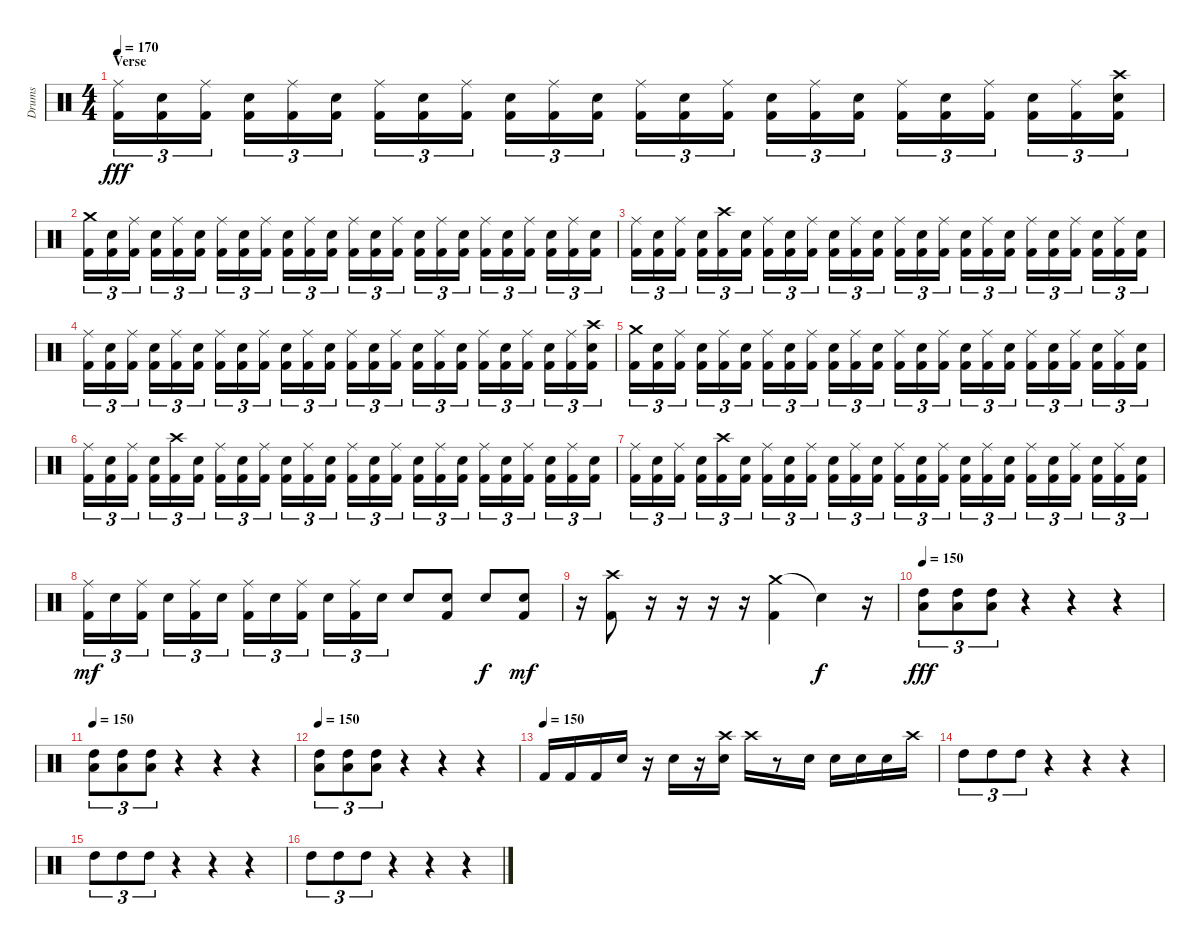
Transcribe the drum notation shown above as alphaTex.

\track ("Drums" "Drums") {instrument percussion}
\staff {score}
\articulation defaults
\ts (4 4)
\section ("" "Verse")
\tempo 170
\clef neutral
\ks c
("Ride (middle)" "Kick (hit) 2").16{tu (3 2) dy fff} ("Snare (hit) 2" "Kick (hit) 2").16{tu (3 2)} ("Ride (middle)" "Kick (hit) 2").16{tu (3 2) beam splitsecondary} ("Snare (hit) 2" "Kick (hit) 2").16{tu (3 2)} ("Ride (middle)" "Kick (hit) 2").16{tu (3 2)} ("Snare (hit) 2" "Kick (hit) 2").16{tu (3 2)} ("Ride (middle)" "Kick (hit) 2").16{tu (3 2)} ("Snare (hit) 2" "Kick (hit) 2").16{tu (3 2)} ("Ride (middle)" "Kick (hit) 2").16{tu (3 2) beam splitsecondary} ("Snare (hit) 2" "Kick (hit) 2").16{tu (3 2)} ("Ride (middle)" "Kick (hit) 2").16{tu (3 2)} ("Snare (hit) 2" "Kick (hit) 2").16{tu (3 2)} ("Ride (middle)" "Kick (hit) 2").16{tu (3 2)} ("Snare (hit) 2" "Kick (hit) 2").16{tu (3 2)} ("Ride (middle)" "Kick (hit) 2").16{tu (3 2) beam splitsecondary} ("Snare (hit) 2" "Kick (hit) 2").16{tu (3 2)} ("Ride (middle)" "Kick (hit) 2").16{tu (3 2)} ("Snare (hit) 2" "Kick (hit) 2").16{tu (3 2)} ("Ride (middle)" "Kick (hit) 2").16{tu (3 2)} ("Snare (hit) 2" "Kick (hit) 2").16{tu (3 2)} ("Ride (middle)" "Kick (hit) 2").16{tu (3 2) beam splitsecondary} ("Snare (hit) 2" "Kick (hit) 2").16{tu (3 2)} ("Ride (middle)" "Kick (hit) 2").16{tu (3 2)} ("Crash high (hit)" "Snare (hit) 2" "Kick (hit) 2").16{tu (3 2)} |
("Crash medium (hit)" "Kick (hit) 2").16{tu (3 2)} ("Snare (hit) 2" "Kick (hit) 2").16{tu (3 2)} ("Ride (middle)" "Kick (hit) 2").16{tu (3 2) beam splitsecondary} ("Snare (hit) 2" "Kick (hit) 2").16{tu (3 2)} ("Ride (middle)" "Kick (hit) 2").16{tu (3 2)} ("Snare (hit) 2" "Kick (hit) 2").16{tu (3 2)} ("Ride (middle)" "Kick (hit) 2").16{tu (3 2)} ("Snare (hit) 2" "Kick (hit) 2").16{tu (3 2)} ("Ride (middle)" "Kick (hit) 2").16{tu (3 2) beam splitsecondary} ("Snare (hit) 2" "Kick (hit) 2").16{tu (3 2)} ("Ride (middle)" "Kick (hit) 2").16{tu (3 2)} ("Snare (hit) 2" "Kick (hit) 2").16{tu (3 2)} ("Ride (middle)" "Kick (hit) 2").16{tu (3 2)} ("Snare (hit) 2" "Kick (hit) 2").16{tu (3 2)} ("Ride (middle)" "Kick (hit) 2").16{tu (3 2) beam splitsecondary} ("Snare (hit) 2" "Kick (hit) 2").16{tu (3 2)} ("Ride (middle)" "Kick (hit) 2").16{tu (3 2)} ("Snare (hit) 2" "Kick (hit) 2").16{tu (3 2)} ("Ride (middle)" "Kick (hit) 2").16{tu (3 2)} ("Snare (hit) 2" "Kick (hit) 2").16{tu (3 2)} ("Ride (middle)" "Kick (hit) 2").16{tu (3 2) beam splitsecondary} ("Snare (hit) 2" "Kick (hit) 2").16{tu (3 2)} ("Ride (middle)" "Kick (hit) 2").16{tu (3 2)} ("Snare (hit) 2" "Kick (hit) 2").16{tu (3 2)} |
("Ride (middle)" "Kick (hit) 2").16{tu (3 2)} ("Snare (hit) 2" "Kick (hit) 2").16{tu (3 2)} ("Ride (middle)" "Kick (hit) 2").16{tu (3 2) beam splitsecondary} ("Snare (hit) 2" "Kick (hit) 2").16{tu (3 2)} ("Crash high (hit)" "Kick (hit) 2").16{tu (3 2)} ("Snare (hit) 2" "Kick (hit) 2").16{tu (3 2)} ("Ride (middle)" "Kick (hit) 2").16{tu (3 2)} ("Snare (hit) 2" "Kick (hit) 2").16{tu (3 2)} ("Ride (middle)" "Kick (hit) 2").16{tu (3 2) beam splitsecondary} ("Snare (hit) 2" "Kick (hit) 2").16{tu (3 2)} ("Ride (middle)" "Kick (hit) 2").16{tu (3 2)} ("Snare (hit) 2" "Kick (hit) 2").16{tu (3 2)} ("Ride (middle)" "Kick (hit) 2").16{tu (3 2)} ("Snare (hit) 2" "Kick (hit) 2").16{tu (3 2)} ("Ride (middle)" "Kick (hit) 2").16{tu (3 2) beam splitsecondary} ("Snare (hit) 2" "Kick (hit) 2").16{tu (3 2)} ("Ride (middle)" "Kick (hit) 2").16{tu (3 2)} ("Snare (hit) 2" "Kick (hit) 2").16{tu (3 2)} ("Ride (middle)" "Kick (hit) 2").16{tu (3 2)} ("Snare (hit) 2" "Kick (hit) 2").16{tu (3 2)} ("Ride (middle)" "Kick (hit) 2").16{tu (3 2) beam splitsecondary} ("Snare (hit) 2" "Kick (hit) 2").16{tu (3 2)} ("Ride (middle)" "Kick (hit) 2").16{tu (3 2)} ("Snare (hit) 2" "Kick (hit) 2").16{tu (3 2)} |
("Ride (middle)" "Kick (hit) 2").16{tu (3 2)} ("Snare (hit) 2" "Kick (hit) 2").16{tu (3 2)} ("Ride (middle)" "Kick (hit) 2").16{tu (3 2) beam splitsecondary} ("Snare (hit) 2" "Kick (hit) 2").16{tu (3 2)} ("Ride (middle)" "Kick (hit) 2").16{tu (3 2)} ("Snare (hit) 2" "Kick (hit) 2").16{tu (3 2)} ("Ride (middle)" "Kick (hit) 2").16{tu (3 2)} ("Snare (hit) 2" "Kick (hit) 2").16{tu (3 2)} ("Ride (middle)" "Kick (hit) 2").16{tu (3 2) beam splitsecondary} ("Snare (hit) 2" "Kick (hit) 2").16{tu (3 2)} ("Ride (middle)" "Kick (hit) 2").16{tu (3 2)} ("Snare (hit) 2" "Kick (hit) 2").16{tu (3 2)} ("Ride (middle)" "Kick (hit) 2").16{tu (3 2)} ("Snare (hit) 2" "Kick (hit) 2").16{tu (3 2)} ("Ride (middle)" "Kick (hit) 2").16{tu (3 2) beam splitsecondary} ("Snare (hit) 2" "Kick (hit) 2").16{tu (3 2)} ("Ride (middle)" "Kick (hit) 2").16{tu (3 2)} ("Snare (hit) 2" "Kick (hit) 2").16{tu (3 2)} ("Ride (middle)" "Kick (hit) 2").16{tu (3 2)} ("Snare (hit) 2" "Kick (hit) 2").16{tu (3 2)} ("Ride (middle)" "Kick (hit) 2").16{tu (3 2) beam splitsecondary} ("Snare (hit) 2" "Kick (hit) 2").16{tu (3 2)} ("Ride (middle)" "Kick (hit) 2").16{tu (3 2)} ("Crash high (hit)" "Snare (hit) 2" "Kick (hit) 2").16{tu (3 2)} |
("Crash medium (hit)" "Kick (hit) 2").16{tu (3 2)} ("Snare (hit) 2" "Kick (hit) 2").16{tu (3 2)} ("Ride (middle)" "Kick (hit) 2").16{tu (3 2) beam splitsecondary} ("Snare (hit) 2" "Kick (hit) 2").16{tu (3 2)} ("Ride (middle)" "Kick (hit) 2").16{tu (3 2)} ("Snare (hit) 2" "Kick (hit) 2").16{tu (3 2)} ("Ride (middle)" "Kick (hit) 2").16{tu (3 2)} ("Snare (hit) 2" "Kick (hit) 2").16{tu (3 2)} ("Ride (middle)" "Kick (hit) 2").16{tu (3 2) beam splitsecondary} ("Snare (hit) 2" "Kick (hit) 2").16{tu (3 2)} ("Ride (middle)" "Kick (hit) 2").16{tu (3 2)} ("Snare (hit) 2" "Kick (hit) 2").16{tu (3 2)} ("Ride (middle)" "Kick (hit) 2").16{tu (3 2)} ("Snare (hit) 2" "Kick (hit) 2").16{tu (3 2)} ("Ride (middle)" "Kick (hit) 2").16{tu (3 2) beam splitsecondary} ("Snare (hit) 2" "Kick (hit) 2").16{tu (3 2)} ("Ride (middle)" "Kick (hit) 2").16{tu (3 2)} ("Snare (hit) 2" "Kick (hit) 2").16{tu (3 2)} ("Ride (middle)" "Kick (hit) 2").16{tu (3 2)} ("Snare (hit) 2" "Kick (hit) 2").16{tu (3 2)} ("Ride (middle)" "Kick (hit) 2").16{tu (3 2) beam splitsecondary} ("Snare (hit) 2" "Kick (hit) 2").16{tu (3 2)} ("Ride (middle)" "Kick (hit) 2").16{tu (3 2)} ("Snare (hit) 2" "Kick (hit) 2").16{tu (3 2)} |
("Ride (middle)" "Kick (hit) 2").16{tu (3 2)} ("Snare (hit) 2" "Kick (hit) 2").16{tu (3 2)} ("Ride (middle)" "Kick (hit) 2").16{tu (3 2) beam splitsecondary} ("Snare (hit) 2" "Kick (hit) 2").16{tu (3 2)} ("Crash high (hit)" "Kick (hit) 2").16{tu (3 2)} ("Snare (hit) 2" "Kick (hit) 2").16{tu (3 2)} ("Ride (middle)" "Kick (hit) 2").16{tu (3 2)} ("Snare (hit) 2" "Kick (hit) 2").16{tu (3 2)} ("Ride (middle)" "Kick (hit) 2").16{tu (3 2) beam splitsecondary} ("Snare (hit) 2" "Kick (hit) 2").16{tu (3 2)} ("Ride (middle)" "Kick (hit) 2").16{tu (3 2)} ("Snare (hit) 2" "Kick (hit) 2").16{tu (3 2)} ("Ride (middle)" "Kick (hit) 2").16{tu (3 2)} ("Snare (hit) 2" "Kick (hit) 2").16{tu (3 2)} ("Ride (middle)" "Kick (hit) 2").16{tu (3 2) beam splitsecondary} ("Snare (hit) 2" "Kick (hit) 2").16{tu (3 2)} ("Ride (middle)" "Kick (hit) 2").16{tu (3 2)} ("Snare (hit) 2" "Kick (hit) 2").16{tu (3 2)} ("Ride (middle)" "Kick (hit) 2").16{tu (3 2)} ("Snare (hit) 2" "Kick (hit) 2").16{tu (3 2)} ("Ride (middle)" "Kick (hit) 2").16{tu (3 2) beam splitsecondary} ("Snare (hit) 2" "Kick (hit) 2").16{tu (3 2)} ("Ride (middle)" "Kick (hit) 2").16{tu (3 2)} ("Snare (hit) 2" "Kick (hit) 2").16{tu (3 2)} |
("Ride (middle)" "Kick (hit) 2").16{tu (3 2)} ("Snare (hit) 2" "Kick (hit) 2").16{tu (3 2)} ("Ride (middle)" "Kick (hit) 2").16{tu (3 2) beam splitsecondary} ("Snare (hit) 2" "Kick (hit) 2").16{tu (3 2)} ("Crash high (hit)" "Kick (hit) 2").16{tu (3 2)} ("Snare (hit) 2" "Kick (hit) 2").16{tu (3 2)} ("Ride (middle)" "Kick (hit) 2").16{tu (3 2)} ("Snare (hit) 2" "Kick (hit) 2").16{tu (3 2)} ("Ride (middle)" "Kick (hit) 2").16{tu (3 2) beam splitsecondary} ("Snare (hit) 2" "Kick (hit) 2").16{tu (3 2)} ("Ride (middle)" "Kick (hit) 2").16{tu (3 2)} ("Snare (hit) 2" "Kick (hit) 2").16{tu (3 2)} ("Ride (middle)" "Kick (hit) 2").16{tu (3 2)} ("Snare (hit) 2" "Kick (hit) 2").16{tu (3 2)} ("Ride (middle)" "Kick (hit) 2").16{tu (3 2) beam splitsecondary} ("Snare (hit) 2" "Kick (hit) 2").16{tu (3 2)} ("Ride (middle)" "Kick (hit) 2").16{tu (3 2)} ("Snare (hit) 2" "Kick (hit) 2").16{tu (3 2)} ("Ride (middle)" "Kick (hit) 2").16{tu (3 2)} ("Snare (hit) 2" "Kick (hit) 2").16{tu (3 2)} ("Ride (middle)" "Kick (hit) 2").16{tu (3 2) beam splitsecondary} ("Snare (hit) 2" "Kick (hit) 2").16{tu (3 2)} ("Ride (middle)" "Kick (hit) 2").16{tu (3 2)} ("Snare (hit) 2" "Kick (hit) 2").16{tu (3 2)} |
("Ride (middle)" "Kick (hit) 2").16{tu (3 2) dy mf} "Snare (hit) 2".16{tu (3 2)} ("Ride (middle)" "Kick (hit) 2").16{tu (3 2) beam splitsecondary} "Snare (hit) 2".16{tu (3 2)} ("Ride (middle)" "Kick (hit) 2").16{tu (3 2)} "Snare (hit) 2".16{tu (3 2)} ("Ride (middle)" "Kick (hit) 2").16{tu (3 2)} "Snare (hit) 2".16{tu (3 2)} ("Ride (middle)" "Kick (hit) 2").16{tu (3 2) beam splitsecondary} "Snare (hit) 2".16{tu (3 2)} ("Ride (middle)" "Kick (hit) 2").16{tu (3 2)} "Snare (hit) 2".16{tu (3 2)} "Electric Snare (hit)".8 ("Snare (hit) 2" "Kick (hit) 2").8 "Snare (hit) 2".8{dy f} ("Snare (hit) 2" "Kick (hit) 2").8{dy mf} |
r.16 ("Crash high (hit)" "Kick (hit) 2").8 r.16 r.16 r.16 r.16 ("Crash medium (hit)" "Kick (hit) 2").4 "Snare (hit)"{t}.4{dy f} r.16 |
\tempo 150
("High Tom (hit)" "Low Tom (hit)").8{tu (3 2) dy fff} ("High Tom (hit)" "Low Tom (hit)").8{tu (3 2)} ("High Tom (hit)" "Low Tom (hit)").8{tu (3 2)} r.4 r.4 r.4 |
\tempo 150
("High Tom (hit)" "Low Tom (hit)").8{tu (3 2)} ("High Tom (hit)" "Low Tom (hit)").8{tu (3 2)} ("High Tom (hit)" "Low Tom (hit)").8{tu (3 2)} r.4 r.4 r.4 |
\tempo 150
("High Tom (hit)" "Low Tom (hit)").8{tu (3 2)} ("High Tom (hit)" "Low Tom (hit)").8{tu (3 2)} ("High Tom (hit)" "Low Tom (hit)").8{tu (3 2)} r.4 r.4 r.4 |
\tempo (150)
"Kick (hit) 2".16 "Kick (hit) 2".16 "Kick (hit) 2".16 "Electric Snare (hit)".16 r.16 "Electric Snare (hit)".16 r.16 ("Crash high (hit)" "Electric Snare (hit)").16 "Crash high (hit)".16 r.8 "Electric Snare (hit)".16 "Electric Snare (hit)".16 "Electric Snare (hit)".16 "Electric Snare (hit)".16 "Crash high (hit)".16 |
"High Tom (hit)".8{tu (3 2)} "High Tom (hit)".8{tu (3 2)} "High Tom (hit)".8{tu (3 2)} r.4 r.4 r.4 |
"High Tom (hit)".8{tu (3 2)} "High Tom (hit)".8{tu (3 2)} "High Tom (hit)".8{tu (3 2)} r.4 r.4 r.4 |
"High Tom (hit)".8{tu (3 2)} "High Tom (hit)".8{tu (3 2)} "High Tom (hit)".8{tu (3 2)} r.4 r.4 r.4
